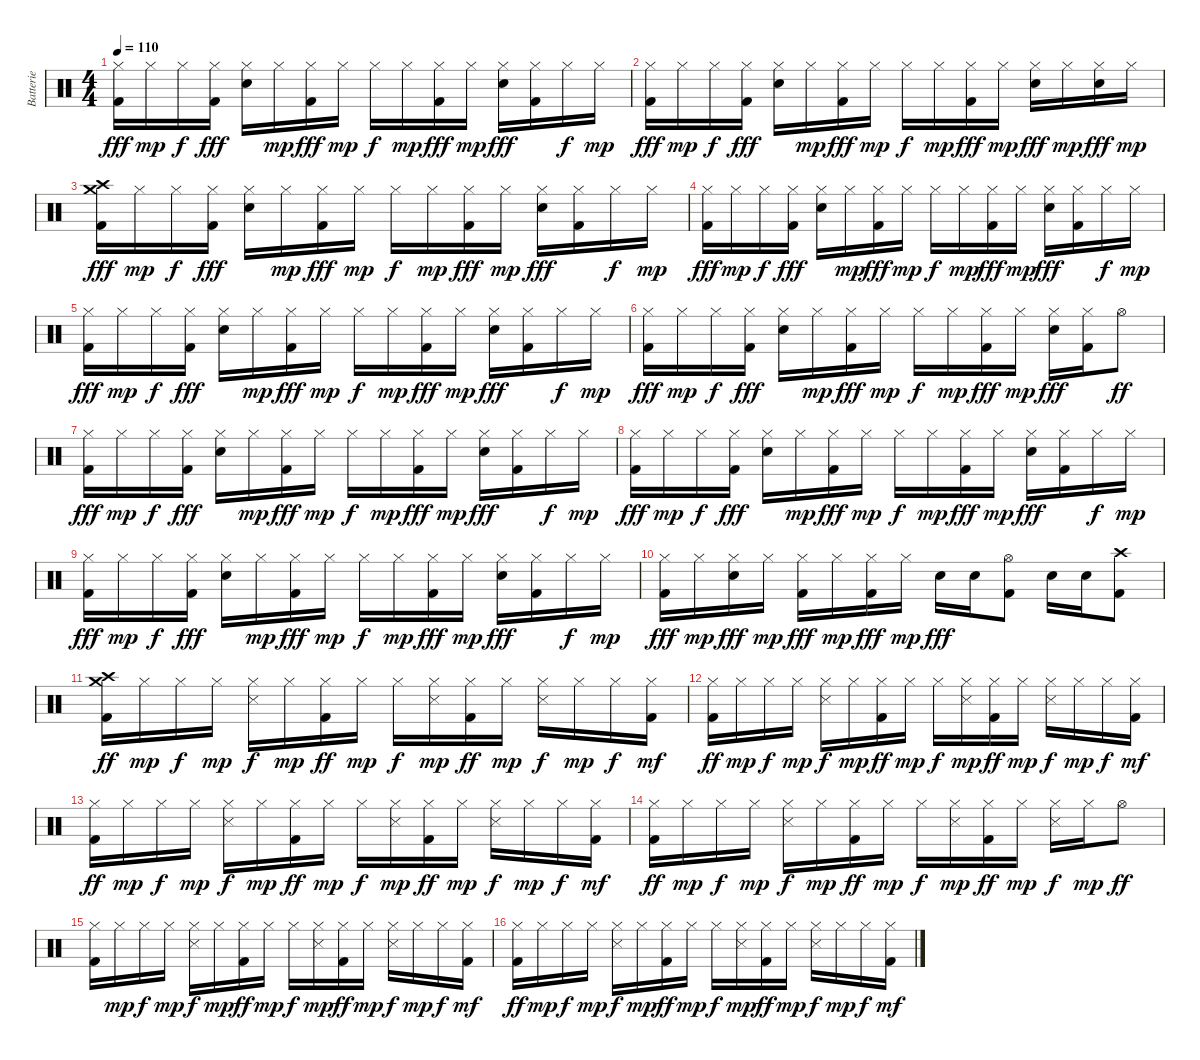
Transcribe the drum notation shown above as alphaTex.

\track ("Batterie" "Batterie") {instrument percussion}
\staff {score}
\articulation defaults
\ts (4 4)
\tempo 110
\clef neutral
\ks c
("Hi-Hat (closed)" "Kick (hit) 2").16{dy fff} "Hi-Hat (closed)".16{dy mp} "Hi-Hat (closed)".16{dy f} ("Hi-Hat (closed)" "Kick (hit) 2").16{dy fff} ("Hi-Hat (closed)" "Snare (hit) 2").16 "Hi-Hat (closed)".16{dy mp} ("Hi-Hat (closed)" "Kick (hit) 2").16{dy fff} "Hi-Hat (closed)".16{dy mp} "Hi-Hat (closed)".16{dy f} "Hi-Hat (closed)".16{dy mp} ("Hi-Hat (closed)" "Kick (hit) 2").16{dy fff} "Hi-Hat (closed)".16{dy mp} ("Hi-Hat (closed)" "Snare (hit) 2").16{dy fff} ("Hi-Hat (closed)" "Kick (hit) 2").16 "Hi-Hat (closed)".16{dy f} "Hi-Hat (closed)".16{dy mp} |
("Hi-Hat (closed)" "Kick (hit) 2").16{dy fff} "Hi-Hat (closed)".16{dy mp} "Hi-Hat (closed)".16{dy f} ("Hi-Hat (closed)" "Kick (hit) 2").16{dy fff} ("Hi-Hat (closed)" "Snare (hit) 2").16 "Hi-Hat (closed)".16{dy mp} ("Hi-Hat (closed)" "Kick (hit) 2").16{dy fff} "Hi-Hat (closed)".16{dy mp} "Hi-Hat (closed)".16{dy f} "Hi-Hat (closed)".16{dy mp} ("Hi-Hat (closed)" "Kick (hit) 2").16{dy fff} "Hi-Hat (closed)".16{dy mp} ("Hi-Hat (closed)" "Snare (hit) 2").16{dy fff} "Hi-Hat (closed)".16{dy mp} ("Hi-Hat (closed)" "Snare (hit) 2").16{dy fff} "Hi-Hat (closed)".16{dy mp} |
("Crash medium (hit)" "Crash high (hit)" "Kick (hit) 2").16{dy fff} "Hi-Hat (closed)".16{dy mp} "Hi-Hat (closed)".16{dy f} ("Hi-Hat (closed)" "Kick (hit) 2").16{dy fff} ("Hi-Hat (closed)" "Snare (hit) 2").16 "Hi-Hat (closed)".16{dy mp} ("Hi-Hat (closed)" "Kick (hit) 2").16{dy fff} "Hi-Hat (closed)".16{dy mp} "Hi-Hat (closed)".16{dy f} "Hi-Hat (closed)".16{dy mp} ("Hi-Hat (closed)" "Kick (hit) 2").16{dy fff} "Hi-Hat (closed)".16{dy mp} ("Hi-Hat (closed)" "Snare (hit) 2").16{dy fff} ("Hi-Hat (closed)" "Kick (hit) 2").16 "Hi-Hat (closed)".16{dy f} "Hi-Hat (closed)".16{dy mp} |
("Hi-Hat (closed)" "Kick (hit) 2").16{dy fff} "Hi-Hat (closed)".16{dy mp} "Hi-Hat (closed)".16{dy f} ("Hi-Hat (closed)" "Kick (hit) 2").16{dy fff} ("Hi-Hat (closed)" "Snare (hit) 2").16 "Hi-Hat (closed)".16{dy mp} ("Hi-Hat (closed)" "Kick (hit) 2").16{dy fff} "Hi-Hat (closed)".16{dy mp} "Hi-Hat (closed)".16{dy f} "Hi-Hat (closed)".16{dy mp} ("Hi-Hat (closed)" "Kick (hit) 2").16{dy fff} "Hi-Hat (closed)".16{dy mp} ("Hi-Hat (closed)" "Snare (hit) 2").16{dy fff} ("Hi-Hat (closed)" "Kick (hit) 2").16 "Hi-Hat (closed)".16{dy f} "Hi-Hat (closed)".16{dy mp} |
("Hi-Hat (closed)" "Kick (hit) 2").16{dy fff} "Hi-Hat (closed)".16{dy mp} "Hi-Hat (closed)".16{dy f} ("Hi-Hat (closed)" "Kick (hit) 2").16{dy fff} ("Hi-Hat (closed)" "Snare (hit) 2").16 "Hi-Hat (closed)".16{dy mp} ("Hi-Hat (closed)" "Kick (hit) 2").16{dy fff} "Hi-Hat (closed)".16{dy mp} "Hi-Hat (closed)".16{dy f} "Hi-Hat (closed)".16{dy mp} ("Hi-Hat (closed)" "Kick (hit) 2").16{dy fff} "Hi-Hat (closed)".16{dy mp} ("Hi-Hat (closed)" "Snare (hit) 2").16{dy fff} ("Hi-Hat (closed)" "Kick (hit) 2").16 "Hi-Hat (closed)".16{dy f} "Hi-Hat (closed)".16{dy mp} |
("Hi-Hat (closed)" "Kick (hit) 2").16{dy fff} "Hi-Hat (closed)".16{dy mp} "Hi-Hat (closed)".16{dy f} ("Hi-Hat (closed)" "Kick (hit) 2").16{dy fff} ("Hi-Hat (closed)" "Snare (hit) 2").16 "Hi-Hat (closed)".16{dy mp} ("Hi-Hat (closed)" "Kick (hit) 2").16{dy fff} "Hi-Hat (closed)".16{dy mp} "Hi-Hat (closed)".16{dy f} "Hi-Hat (closed)".16{dy mp} ("Hi-Hat (closed)" "Kick (hit) 2").16{dy fff} "Hi-Hat (closed)".16{dy mp} ("Hi-Hat (closed)" "Snare (hit) 2").16{dy fff} ("Hi-Hat (closed)" "Kick (hit) 2").16 "Hi-Hat (open)".8{dy ff} |
("Hi-Hat (closed)" "Kick (hit) 2").16{dy fff} "Hi-Hat (closed)".16{dy mp} "Hi-Hat (closed)".16{dy f} ("Hi-Hat (closed)" "Kick (hit) 2").16{dy fff} ("Hi-Hat (closed)" "Snare (hit) 2").16 "Hi-Hat (closed)".16{dy mp} ("Hi-Hat (closed)" "Kick (hit) 2").16{dy fff} "Hi-Hat (closed)".16{dy mp} "Hi-Hat (closed)".16{dy f} "Hi-Hat (closed)".16{dy mp} ("Hi-Hat (closed)" "Kick (hit) 2").16{dy fff} "Hi-Hat (closed)".16{dy mp} ("Hi-Hat (closed)" "Snare (hit) 2").16{dy fff} ("Hi-Hat (closed)" "Kick (hit) 2").16 "Hi-Hat (closed)".16{dy f} "Hi-Hat (closed)".16{dy mp} |
("Hi-Hat (closed)" "Kick (hit) 2").16{dy fff} "Hi-Hat (closed)".16{dy mp} "Hi-Hat (closed)".16{dy f} ("Hi-Hat (closed)" "Kick (hit) 2").16{dy fff} ("Hi-Hat (closed)" "Snare (hit) 2").16 "Hi-Hat (closed)".16{dy mp} ("Hi-Hat (closed)" "Kick (hit) 2").16{dy fff} "Hi-Hat (closed)".16{dy mp} "Hi-Hat (closed)".16{dy f} "Hi-Hat (closed)".16{dy mp} ("Hi-Hat (closed)" "Kick (hit) 2").16{dy fff} "Hi-Hat (closed)".16{dy mp} ("Hi-Hat (closed)" "Snare (hit) 2").16{dy fff} ("Hi-Hat (closed)" "Kick (hit) 2").16 "Hi-Hat (closed)".16{dy f} "Hi-Hat (closed)".16{dy mp} |
("Hi-Hat (closed)" "Kick (hit) 2").16{dy fff} "Hi-Hat (closed)".16{dy mp} "Hi-Hat (closed)".16{dy f} ("Hi-Hat (closed)" "Kick (hit) 2").16{dy fff} ("Hi-Hat (closed)" "Snare (hit) 2").16 "Hi-Hat (closed)".16{dy mp} ("Hi-Hat (closed)" "Kick (hit) 2").16{dy fff} "Hi-Hat (closed)".16{dy mp} "Hi-Hat (closed)".16{dy f} "Hi-Hat (closed)".16{dy mp} ("Hi-Hat (closed)" "Kick (hit) 2").16{dy fff} "Hi-Hat (closed)".16{dy mp} ("Hi-Hat (closed)" "Snare (hit) 2").16{dy fff} ("Hi-Hat (closed)" "Kick (hit) 2").16 "Hi-Hat (closed)".16{dy f} "Hi-Hat (closed)".16{dy mp} |
("Hi-Hat (closed)" "Kick (hit) 2").16{dy fff} "Hi-Hat (closed)".16{dy mp} ("Hi-Hat (closed)" "Snare (hit) 2").16{dy fff} "Hi-Hat (closed)".16{dy mp} ("Hi-Hat (closed)" "Kick (hit) 2").16{dy fff} "Hi-Hat (closed)".16{dy mp} ("Hi-Hat (closed)" "Kick (hit) 2").16{dy fff} "Hi-Hat (closed)".16{dy mp} "Snare (hit) 2".16{dy fff} "Snare (hit) 2".16 ("Hi-Hat (open)" "Kick (hit) 2").8 "Snare (hit) 2".16 "Snare (hit) 2".16 ("Crash high (hit)" "Kick (hit) 2").8 |
("Crash high (hit)" "Crash medium (hit)" "Kick (hit) 2").16{dy ff} "Hi-Hat (closed)".16{dy mp} "Hi-Hat (closed)".16{dy f} "Hi-Hat (closed)".16{dy mp} ("Hi-Hat (closed)" "Snare (side stick) 3").16{dy f} "Hi-Hat (closed)".16{dy mp} ("Hi-Hat (closed)" "Kick (hit) 2").16{dy ff} "Hi-Hat (closed)".16{dy mp} "Hi-Hat (closed)".16{dy f} ("Hi-Hat (closed)" "Snare (side stick) 3").16{dy mp} ("Hi-Hat (closed)" "Kick (hit) 2").16{dy ff} "Hi-Hat (closed)".16{dy mp} ("Hi-Hat (closed)" "Snare (side stick) 3").16{dy f} "Hi-Hat (closed)".16{dy mp} "Hi-Hat (closed)".16{dy f} ("Hi-Hat (closed)" "Kick (hit) 2").16{dy mf} |
("Hi-Hat (closed)" "Kick (hit) 2").16{dy ff} "Hi-Hat (closed)".16{dy mp} "Hi-Hat (closed)".16{dy f} "Hi-Hat (closed)".16{dy mp} ("Hi-Hat (closed)" "Snare (side stick) 3").16{dy f} "Hi-Hat (closed)".16{dy mp} ("Hi-Hat (closed)" "Kick (hit) 2").16{dy ff} "Hi-Hat (closed)".16{dy mp} "Hi-Hat (closed)".16{dy f} ("Hi-Hat (closed)" "Snare (side stick) 3").16{dy mp} ("Hi-Hat (closed)" "Kick (hit) 2").16{dy ff} "Hi-Hat (closed)".16{dy mp} ("Hi-Hat (closed)" "Snare (side stick) 3").16{dy f} "Hi-Hat (closed)".16{dy mp} "Hi-Hat (closed)".16{dy f} ("Hi-Hat (closed)" "Kick (hit) 2").16{dy mf} |
("Hi-Hat (closed)" "Kick (hit) 2").16{dy ff} "Hi-Hat (closed)".16{dy mp} "Hi-Hat (closed)".16{dy f} "Hi-Hat (closed)".16{dy mp} ("Hi-Hat (closed)" "Snare (side stick) 3").16{dy f} "Hi-Hat (closed)".16{dy mp} ("Hi-Hat (closed)" "Kick (hit) 2").16{dy ff} "Hi-Hat (closed)".16{dy mp} "Hi-Hat (closed)".16{dy f} ("Hi-Hat (closed)" "Snare (side stick) 3").16{dy mp} ("Hi-Hat (closed)" "Kick (hit) 2").16{dy ff} "Hi-Hat (closed)".16{dy mp} ("Hi-Hat (closed)" "Snare (side stick) 3").16{dy f} "Hi-Hat (closed)".16{dy mp} "Hi-Hat (closed)".16{dy f} ("Hi-Hat (closed)" "Kick (hit) 2").16{dy mf} |
("Hi-Hat (closed)" "Kick (hit) 2").16{dy ff} "Hi-Hat (closed)".16{dy mp} "Hi-Hat (closed)".16{dy f} "Hi-Hat (closed)".16{dy mp} ("Hi-Hat (closed)" "Snare (side stick) 3").16{dy f} "Hi-Hat (closed)".16{dy mp} ("Hi-Hat (closed)" "Kick (hit) 2").16{dy ff} "Hi-Hat (closed)".16{dy mp} "Hi-Hat (closed)".16{dy f} ("Hi-Hat (closed)" "Snare (side stick) 3").16{dy mp} ("Hi-Hat (closed)" "Kick (hit) 2").16{dy ff} "Hi-Hat (closed)".16{dy mp} ("Hi-Hat (closed)" "Snare (side stick) 3").16{dy f} "Hi-Hat (closed)".16{dy mp} "Hi-Hat (open)".8{dy ff} |
("Hi-Hat (closed)" "Kick (hit) 2").16 "Hi-Hat (closed)".16{dy mp} "Hi-Hat (closed)".16{dy f} "Hi-Hat (closed)".16{dy mp} ("Hi-Hat (closed)" "Snare (side stick) 3").16{dy f} "Hi-Hat (closed)".16{dy mp} ("Hi-Hat (closed)" "Kick (hit) 2").16{dy ff} "Hi-Hat (closed)".16{dy mp} "Hi-Hat (closed)".16{dy f} ("Hi-Hat (closed)" "Snare (side stick) 3").16{dy mp} ("Hi-Hat (closed)" "Kick (hit) 2").16{dy ff} "Hi-Hat (closed)".16{dy mp} ("Hi-Hat (closed)" "Snare (side stick) 3").16{dy f} "Hi-Hat (closed)".16{dy mp} "Hi-Hat (closed)".16{dy f} ("Hi-Hat (closed)" "Kick (hit) 2").16{dy mf} |
("Hi-Hat (closed)" "Kick (hit) 2").16{dy ff} "Hi-Hat (closed)".16{dy mp} "Hi-Hat (closed)".16{dy f} "Hi-Hat (closed)".16{dy mp} ("Hi-Hat (closed)" "Snare (side stick) 3").16{dy f} "Hi-Hat (closed)".16{dy mp} ("Hi-Hat (closed)" "Kick (hit) 2").16{dy ff} "Hi-Hat (closed)".16{dy mp} "Hi-Hat (closed)".16{dy f} ("Hi-Hat (closed)" "Snare (side stick) 3").16{dy mp} ("Hi-Hat (closed)" "Kick (hit) 2").16{dy ff} "Hi-Hat (closed)".16{dy mp} ("Hi-Hat (closed)" "Snare (side stick) 3").16{dy f} "Hi-Hat (closed)".16{dy mp} "Hi-Hat (closed)".16{dy f} ("Hi-Hat (closed)" "Kick (hit) 2").16{dy mf}
